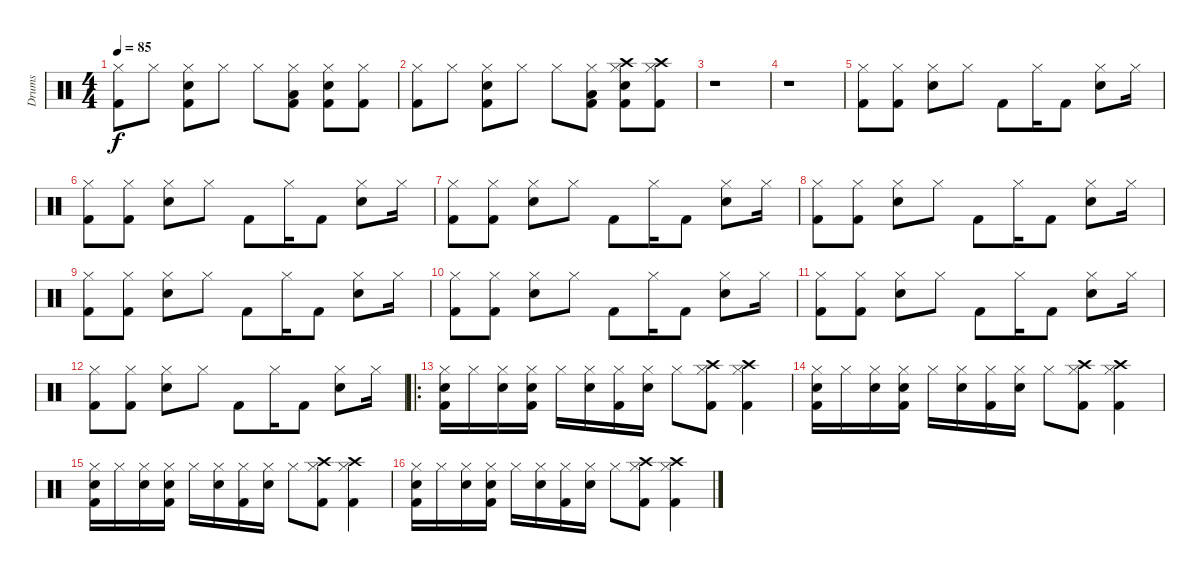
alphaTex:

\track ("Drums" "Drums") {instrument percussion}
\staff {score}
\articulation defaults
\ts (4 4)
\tempo 85
\clef neutral
\ks c
("Hi-Hat (closed)" "Kick (hit) 2").8{dy f} "Hi-Hat (closed)".8 ("Hi-Hat (closed)" "Electric Snare (hit)" "Kick (hit) 2").8 "Hi-Hat (closed)".8 "Hi-Hat (closed)".8 ("Hi-Hat (closed)" "Low Tom (hit)" "Kick (hit) 2").8 ("Hi-Hat (closed)" "Electric Snare (hit)" "Kick (hit) 2").8 ("Hi-Hat (closed)" "Kick (hit) 2").8 |
("Hi-Hat (closed)" "Kick (hit) 2").8 "Hi-Hat (closed)".8 ("Hi-Hat (closed)" "Electric Snare (hit)" "Kick (hit) 2").8 "Hi-Hat (closed)".8 "Hi-Hat (closed)".8 ("Hi-Hat (closed)" "Low Tom (hit)" "Kick (hit) 2").8 ("Crash high (hit)" "Hi-Hat (closed)" "Electric Snare (hit)" "Kick (hit) 2").8 ("Crash high (hit)" "Hi-Hat (closed)" "Kick (hit) 2").8 |
r.1 |
r.1 |
("Hi-Hat (closed)" "Kick (hit) 2").8 ("Hi-Hat (closed)" "Kick (hit) 2").8 ("Hi-Hat (closed)" "Snare (hit) 2").8 "Hi-Hat (closed)".8 "Kick (hit) 2".8 "Hi-Hat (closed)".16 "Kick (hit) 2".8 ("Hi-Hat (closed)" "Snare (hit) 2").8 "Hi-Hat (closed)".16 |
("Hi-Hat (closed)" "Kick (hit) 2").8 ("Hi-Hat (closed)" "Kick (hit) 2").8 ("Hi-Hat (closed)" "Snare (hit) 2").8 "Hi-Hat (closed)".8 "Kick (hit) 2".8 "Hi-Hat (closed)".16 "Kick (hit) 2".8 ("Hi-Hat (closed)" "Snare (hit) 2").8 "Hi-Hat (closed)".16 |
("Hi-Hat (closed)" "Kick (hit) 2").8 ("Hi-Hat (closed)" "Kick (hit) 2").8 ("Hi-Hat (closed)" "Snare (hit) 2").8 "Hi-Hat (closed)".8 "Kick (hit) 2".8 "Hi-Hat (closed)".16 "Kick (hit) 2".8 ("Hi-Hat (closed)" "Snare (hit) 2").8 "Hi-Hat (closed)".16 |
("Hi-Hat (closed)" "Kick (hit) 2").8 ("Hi-Hat (closed)" "Kick (hit) 2").8 ("Hi-Hat (closed)" "Snare (hit) 2").8 "Hi-Hat (closed)".8 "Kick (hit) 2".8 "Hi-Hat (closed)".16 "Kick (hit) 2".8 ("Hi-Hat (closed)" "Snare (hit) 2").8 "Hi-Hat (closed)".16 |
("Hi-Hat (closed)" "Kick (hit) 2").8 ("Hi-Hat (closed)" "Kick (hit) 2").8 ("Hi-Hat (closed)" "Snare (hit) 2").8 "Hi-Hat (closed)".8 "Kick (hit) 2".8 "Hi-Hat (closed)".16 "Kick (hit) 2".8 ("Hi-Hat (closed)" "Snare (hit) 2").8 "Hi-Hat (closed)".16 |
("Hi-Hat (closed)" "Kick (hit) 2").8 ("Hi-Hat (closed)" "Kick (hit) 2").8 ("Hi-Hat (closed)" "Snare (hit) 2").8 "Hi-Hat (closed)".8 "Kick (hit) 2".8 "Hi-Hat (closed)".16 "Kick (hit) 2".8 ("Hi-Hat (closed)" "Snare (hit) 2").8 "Hi-Hat (closed)".16 |
("Hi-Hat (closed)" "Kick (hit) 2").8 ("Hi-Hat (closed)" "Kick (hit) 2").8 ("Hi-Hat (closed)" "Snare (hit) 2").8 "Hi-Hat (closed)".8 "Kick (hit) 2".8 "Hi-Hat (closed)".16 "Kick (hit) 2".8 ("Hi-Hat (closed)" "Snare (hit) 2").8 "Hi-Hat (closed)".16 |
("Hi-Hat (closed)" "Kick (hit) 2").8 ("Hi-Hat (closed)" "Kick (hit) 2").8 ("Hi-Hat (closed)" "Snare (hit) 2").8 "Hi-Hat (closed)".8 "Kick (hit) 2".8 "Hi-Hat (closed)".16 "Kick (hit) 2".8 ("Hi-Hat (closed)" "Snare (hit) 2").8 "Hi-Hat (closed)".16 |
\ro
("Hi-Hat (closed)" "Electric Snare (hit)" "Kick (hit) 2").16 "Hi-Hat (closed)".16 ("Hi-Hat (closed)" "Electric Snare (hit)").16 ("Hi-Hat (closed)" "Electric Snare (hit)" "Kick (hit) 2").16 "Hi-Hat (closed)".16 ("Hi-Hat (closed)" "Electric Snare (hit)").16 ("Hi-Hat (closed)" "Kick (hit) 2").16 ("Hi-Hat (closed)" "Electric Snare (hit)").16 "Hi-Hat (closed)".8 ("Crash high (hit)" "Hi-Hat (closed)" "Kick (hit) 2").8 ("Crash high (hit)" "Hi-Hat (closed)" "Kick (hit) 2").4 |
("Hi-Hat (closed)" "Electric Snare (hit)" "Kick (hit) 2").16 "Hi-Hat (closed)".16 ("Hi-Hat (closed)" "Electric Snare (hit)").16 ("Hi-Hat (closed)" "Electric Snare (hit)" "Kick (hit) 2").16 "Hi-Hat (closed)".16 ("Hi-Hat (closed)" "Electric Snare (hit)").16 ("Hi-Hat (closed)" "Kick (hit) 2").16 ("Hi-Hat (closed)" "Electric Snare (hit)").16 "Hi-Hat (closed)".8 ("Crash high (hit)" "Hi-Hat (closed)" "Kick (hit) 2").8 ("Crash high (hit)" "Hi-Hat (closed)" "Kick (hit) 2").4 |
("Hi-Hat (closed)" "Electric Snare (hit)" "Kick (hit) 2").16 "Hi-Hat (closed)".16 ("Hi-Hat (closed)" "Electric Snare (hit)").16 ("Hi-Hat (closed)" "Electric Snare (hit)" "Kick (hit) 2").16 "Hi-Hat (closed)".16 ("Hi-Hat (closed)" "Electric Snare (hit)").16 ("Hi-Hat (closed)" "Kick (hit) 2").16 ("Hi-Hat (closed)" "Electric Snare (hit)").16 "Hi-Hat (closed)".8 ("Crash high (hit)" "Hi-Hat (closed)" "Kick (hit) 2").8 ("Crash high (hit)" "Hi-Hat (closed)" "Kick (hit) 2").4 |
("Hi-Hat (closed)" "Electric Snare (hit)" "Kick (hit) 2").16 "Hi-Hat (closed)".16 ("Hi-Hat (closed)" "Electric Snare (hit)").16 ("Hi-Hat (closed)" "Electric Snare (hit)" "Kick (hit) 2").16 "Hi-Hat (closed)".16 ("Hi-Hat (closed)" "Electric Snare (hit)").16 ("Hi-Hat (closed)" "Kick (hit) 2").16 ("Hi-Hat (closed)" "Electric Snare (hit)").16 "Hi-Hat (closed)".8 ("Crash high (hit)" "Hi-Hat (closed)" "Kick (hit) 2").8 ("Crash high (hit)" "Hi-Hat (closed)" "Kick (hit) 2").4
